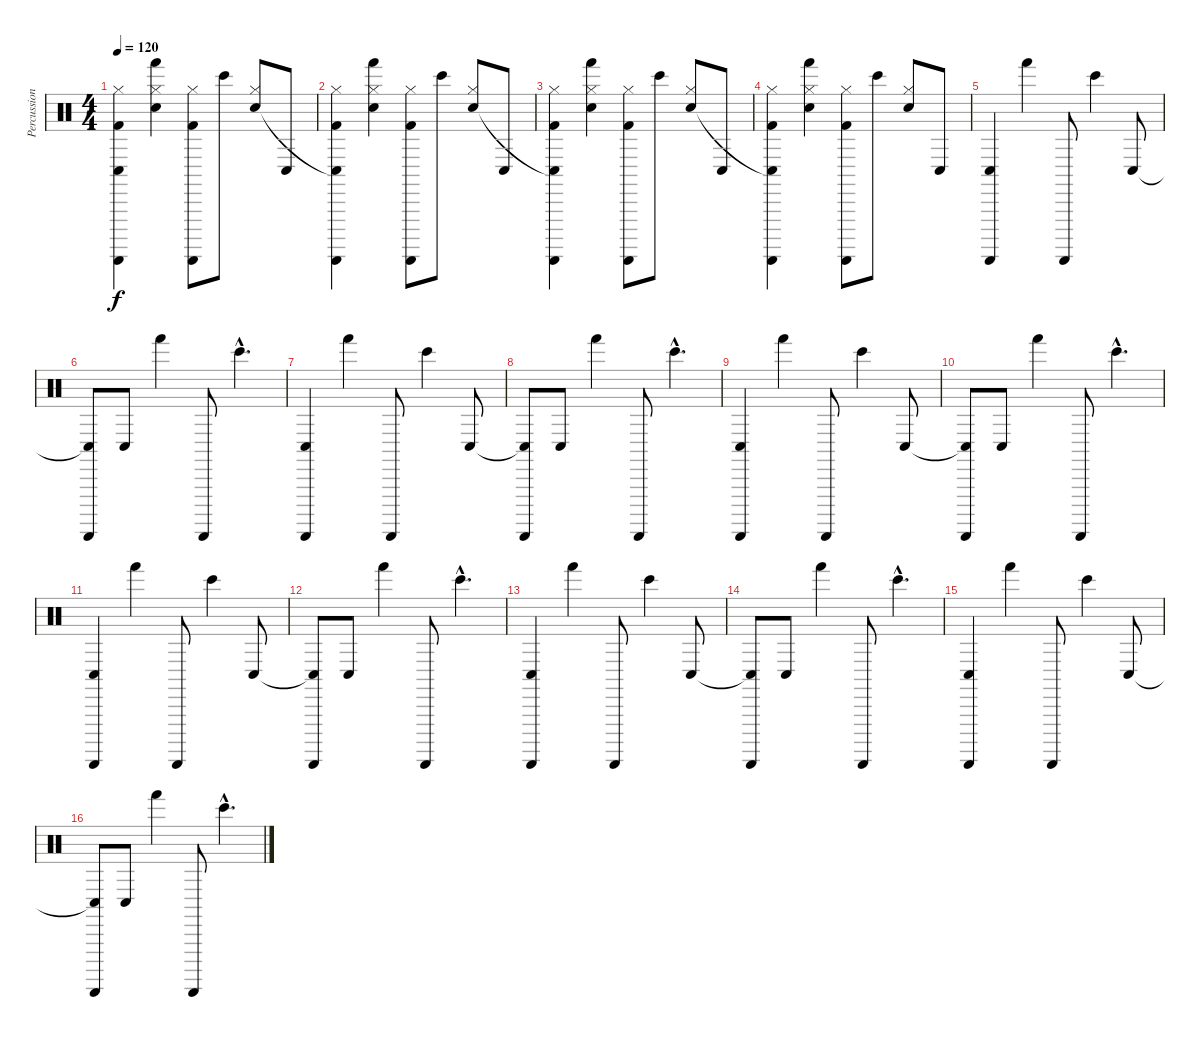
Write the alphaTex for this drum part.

\track ("Percussions" "Percussion") {instrument percussion}
\staff {score}
\articulation defaults
\ts (4 4)
\tempo 120
\clef neutral
\ks c
("Hi-Hat (closed)" "Conga low (hit)"{t} "Guiro (scrap-return)" "Kick (hit) 2").4{dy f} ("Hi-Hat (closed)" "Hand (hit)" "Snare (hit) 2").4 ("Hi-Hat (closed)" "Guiro (scrap-return)" "Kick (hit) 2").8 "Bongo High (hit)".8 ("Hi-Hat (closed)" "Snare (hit) 2").8 "Conga low (hit)".8 |
("Hi-Hat (closed)" "Conga low (hit)"{t} "Guiro (scrap-return)" "Kick (hit) 2").4 ("Hi-Hat (closed)" "Hand (hit)" "Snare (hit) 2").4 ("Hi-Hat (closed)" "Guiro (scrap-return)" "Kick (hit) 2").8 "Bongo High (hit)".8 ("Hi-Hat (closed)" "Snare (hit) 2").8 "Conga low (hit)".8 |
("Hi-Hat (closed)" "Conga low (hit)"{t} "Guiro (scrap-return)" "Kick (hit) 2").4 ("Hi-Hat (closed)" "Hand (hit)" "Snare (hit) 2").4 ("Hi-Hat (closed)" "Guiro (scrap-return)" "Kick (hit) 2").8 "Bongo High (hit)".8 ("Hi-Hat (closed)" "Snare (hit) 2").8 "Conga low (hit)".8 |
("Hi-Hat (closed)" "Conga low (hit)"{t} "Guiro (scrap-return)" "Kick (hit) 2").4 ("Hi-Hat (closed)" "Hand (hit)" "Snare (hit) 2").4 ("Hi-Hat (closed)" "Guiro (scrap-return)" "Kick (hit) 2").8 "Bongo High (hit)".8 ("Hi-Hat (closed)" "Snare (hit) 2").8 "Conga low (hit)".8 |
("Conga low (hit)" "Guiro (scrap-return)").4 "Hand (hit)".4 "Guiro (scrap-return)".8 "Bongo High (hit)".4 "Conga low (hit)".8 |
("Conga low (hit)"{t} "Guiro (scrap-return)").8 "Conga low (hit)".8 "Hand (hit)".4 "Guiro (scrap-return)".8 "Bongo High (hit)"{hac}.4{d} |
("Conga low (hit)" "Guiro (scrap-return)").4 "Hand (hit)".4 "Guiro (scrap-return)".8 "Bongo High (hit)".4 "Conga low (hit)".8 |
("Conga low (hit)"{t} "Guiro (scrap-return)").8 "Conga low (hit)".8 "Hand (hit)".4 "Guiro (scrap-return)".8 "Bongo High (hit)"{hac}.4{d} |
("Conga low (hit)" "Guiro (scrap-return)").4 "Hand (hit)".4 "Guiro (scrap-return)".8 "Bongo High (hit)".4 "Conga low (hit)".8 |
("Conga low (hit)"{t} "Guiro (scrap-return)").8 "Conga low (hit)".8 "Hand (hit)".4 "Guiro (scrap-return)".8 "Bongo High (hit)"{hac}.4{d} |
("Conga low (hit)" "Guiro (scrap-return)").4 "Hand (hit)".4 "Guiro (scrap-return)".8 "Bongo High (hit)".4 "Conga low (hit)".8 |
("Conga low (hit)"{t} "Guiro (scrap-return)").8 "Conga low (hit)".8 "Hand (hit)".4 "Guiro (scrap-return)".8 "Bongo High (hit)"{hac}.4{d} |
("Conga low (hit)" "Guiro (scrap-return)").4 "Hand (hit)".4 "Guiro (scrap-return)".8 "Bongo High (hit)".4 "Conga low (hit)".8 |
("Conga low (hit)"{t} "Guiro (scrap-return)").8 "Conga low (hit)".8 "Hand (hit)".4 "Guiro (scrap-return)".8 "Bongo High (hit)"{hac}.4{d} |
("Conga low (hit)" "Guiro (scrap-return)").4 "Hand (hit)".4 "Guiro (scrap-return)".8 "Bongo High (hit)".4 "Conga low (hit)".8 |
("Conga low (hit)"{t} "Guiro (scrap-return)").8 "Conga low (hit)".8 "Hand (hit)".4 "Guiro (scrap-return)".8 "Bongo High (hit)"{hac}.4{d}
